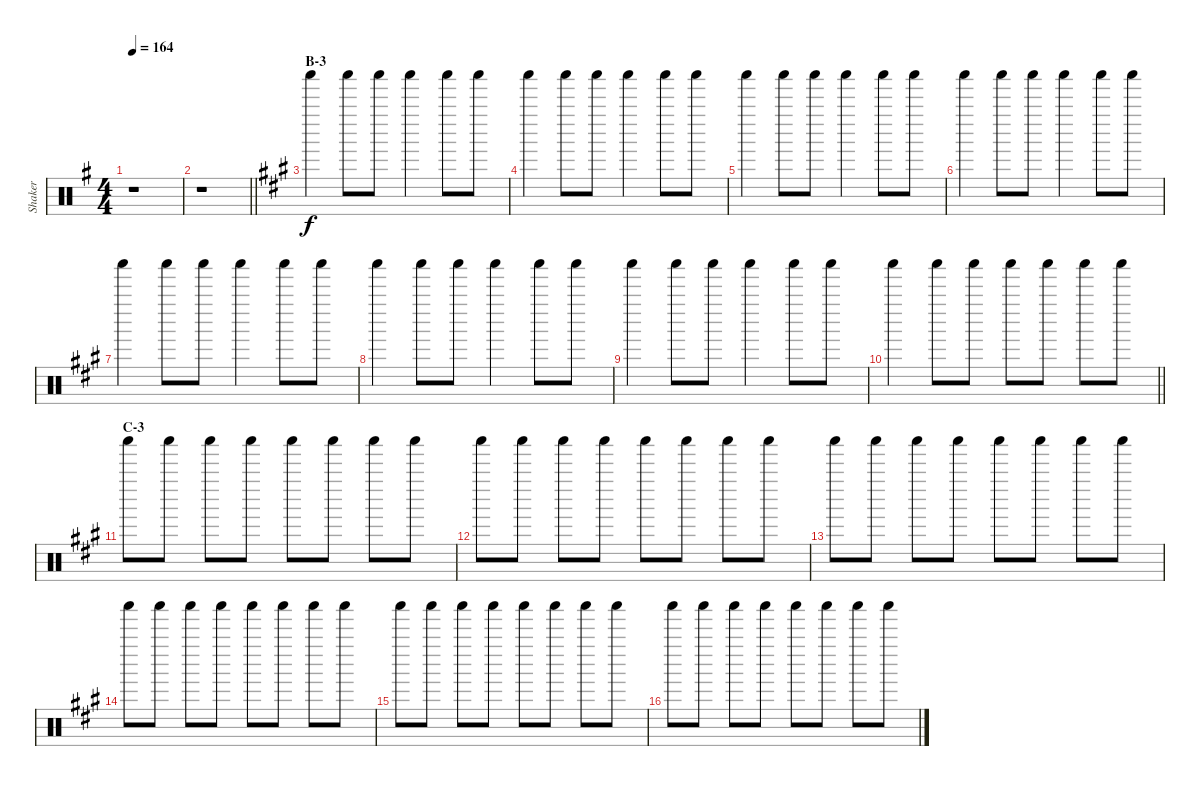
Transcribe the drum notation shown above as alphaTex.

\track ("Shaker" "Shaker") {instrument percussion}
\staff {score}
\articulation defaults
\ts (4 4)
\tempo 164
\clef neutral
\ks g
r.1{dy f} |
\barLineRight lightlight
r.1 |
\section ("" "B-3")
\ks a "Shaker (hit)".4 "Shaker (hit)".8 "Shaker (hit)".8 "Shaker (hit)".4 "Shaker (hit)".8 "Shaker (hit)".8
|
"Shaker (hit)".4 "Shaker (hit)".8 "Shaker (hit)".8 "Shaker (hit)".4 "Shaker (hit)".8 "Shaker (hit)".8 |
"Shaker (hit)".4 "Shaker (hit)".8 "Shaker (hit)".8 "Shaker (hit)".4 "Shaker (hit)".8 "Shaker (hit)".8 |
"Shaker (hit)".4 "Shaker (hit)".8 "Shaker (hit)".8 "Shaker (hit)".4 "Shaker (hit)".8 "Shaker (hit)".8 |
"Shaker (hit)".4 "Shaker (hit)".8 "Shaker (hit)".8 "Shaker (hit)".4 "Shaker (hit)".8 "Shaker (hit)".8 |
"Shaker (hit)".4 "Shaker (hit)".8 "Shaker (hit)".8 "Shaker (hit)".4 "Shaker (hit)".8 "Shaker (hit)".8 |
"Shaker (hit)".4 "Shaker (hit)".8 "Shaker (hit)".8 "Shaker (hit)".4 "Shaker (hit)".8 "Shaker (hit)".8 |
\barLineRight lightlight "Shaker (hit)".4 "Shaker (hit)".8 "Shaker (hit)".8 "Shaker (hit)".8 "Shaker (hit)".8 "Shaker (hit)".8 "Shaker (hit)".8
|
\section ("" "C-3")
"Shaker (hit)".8 "Shaker (hit)".8 "Shaker (hit)".8 "Shaker (hit)".8 "Shaker (hit)".8 "Shaker (hit)".8 "Shaker (hit)".8 "Shaker (hit)".8 |
"Shaker (hit)".8 "Shaker (hit)".8 "Shaker (hit)".8 "Shaker (hit)".8 "Shaker (hit)".8 "Shaker (hit)".8 "Shaker (hit)".8 "Shaker (hit)".8 |
"Shaker (hit)".8 "Shaker (hit)".8 "Shaker (hit)".8 "Shaker (hit)".8 "Shaker (hit)".8 "Shaker (hit)".8 "Shaker (hit)".8 "Shaker (hit)".8 |
"Shaker (hit)".8 "Shaker (hit)".8 "Shaker (hit)".8 "Shaker (hit)".8 "Shaker (hit)".8 "Shaker (hit)".8 "Shaker (hit)".8 "Shaker (hit)".8 |
"Shaker (hit)".8 "Shaker (hit)".8 "Shaker (hit)".8 "Shaker (hit)".8 "Shaker (hit)".8 "Shaker (hit)".8 "Shaker (hit)".8 "Shaker (hit)".8 |
"Shaker (hit)".8 "Shaker (hit)".8 "Shaker (hit)".8 "Shaker (hit)".8 "Shaker (hit)".8 "Shaker (hit)".8 "Shaker (hit)".8 "Shaker (hit)".8
